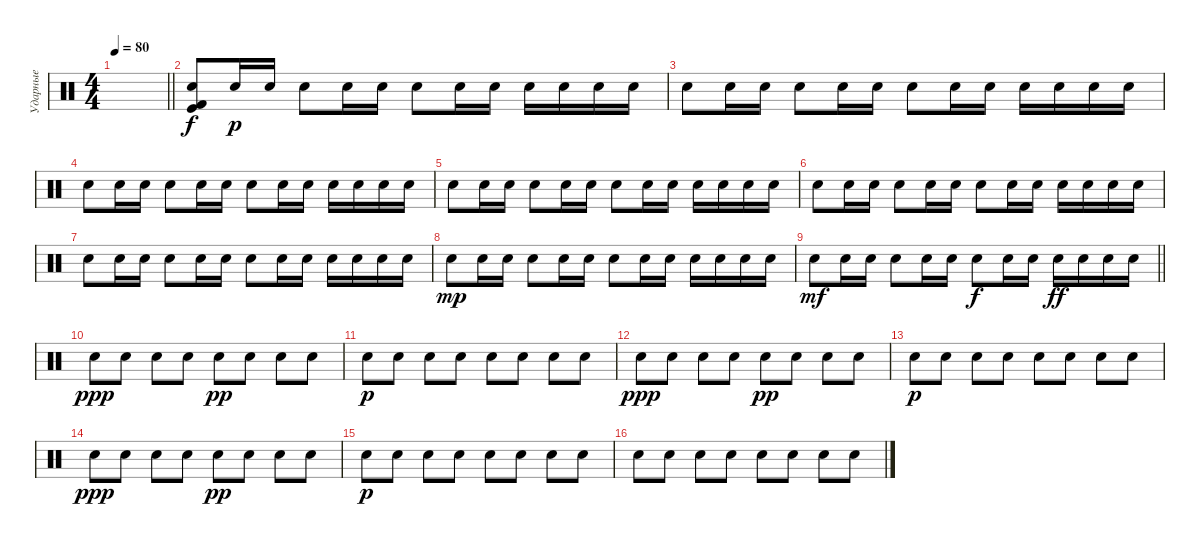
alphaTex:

\track ("Ударные" "Ударные") {instrument percussion}
\staff {score}
\articulation defaults
\ts (4 4)
\tempo 80
\clef neutral
\barLineRight lightlight
\ks c
|
("Snare (hit) 2" "Kick (hit) 2" "Kick (hit)").8 "Snare (hit) 2".16{dy p} "Snare (hit) 2".16 "Snare (hit) 2".8 "Snare (hit) 2".16 "Snare (hit) 2".16 "Snare (hit) 2".8 "Snare (hit) 2".16 "Snare (hit) 2".16 "Snare (hit) 2".16 "Snare (hit) 2".16 "Snare (hit) 2".16 "Snare (hit) 2".16 |
"Snare (hit) 2".8 "Snare (hit) 2".16 "Snare (hit) 2".16 "Snare (hit) 2".8 "Snare (hit) 2".16 "Snare (hit) 2".16 "Snare (hit) 2".8 "Snare (hit) 2".16 "Snare (hit) 2".16 "Snare (hit) 2".16 "Snare (hit) 2".16 "Snare (hit) 2".16 "Snare (hit) 2".16 |
"Snare (hit) 2".8 "Snare (hit) 2".16 "Snare (hit) 2".16 "Snare (hit) 2".8 "Snare (hit) 2".16 "Snare (hit) 2".16 "Snare (hit) 2".8 "Snare (hit) 2".16 "Snare (hit) 2".16 "Snare (hit) 2".16 "Snare (hit) 2".16 "Snare (hit) 2".16 "Snare (hit) 2".16 |
"Snare (hit) 2".8 "Snare (hit) 2".16 "Snare (hit) 2".16 "Snare (hit) 2".8 "Snare (hit) 2".16 "Snare (hit) 2".16 "Snare (hit) 2".8 "Snare (hit) 2".16 "Snare (hit) 2".16 "Snare (hit) 2".16 "Snare (hit) 2".16 "Snare (hit) 2".16 "Snare (hit) 2".16 |
"Snare (hit) 2".8 "Snare (hit) 2".16 "Snare (hit) 2".16 "Snare (hit) 2".8 "Snare (hit) 2".16 "Snare (hit) 2".16 "Snare (hit) 2".8 "Snare (hit) 2".16 "Snare (hit) 2".16 "Snare (hit) 2".16 "Snare (hit) 2".16 "Snare (hit) 2".16 "Snare (hit) 2".16 |
"Snare (hit) 2".8 "Snare (hit) 2".16 "Snare (hit) 2".16 "Snare (hit) 2".8 "Snare (hit) 2".16 "Snare (hit) 2".16 "Snare (hit) 2".8 "Snare (hit) 2".16 "Snare (hit) 2".16 "Snare (hit) 2".16 "Snare (hit) 2".16 "Snare (hit) 2".16 "Snare (hit) 2".16 |
"Snare (hit) 2".8{dy mp} "Snare (hit) 2".16 "Snare (hit) 2".16 "Snare (hit) 2".8 "Snare (hit) 2".16 "Snare (hit) 2".16 "Snare (hit) 2".8 "Snare (hit) 2".16 "Snare (hit) 2".16 "Snare (hit) 2".16 "Snare (hit) 2".16 "Snare (hit) 2".16 "Snare (hit) 2".16 |
\barLineRight lightlight "Snare (hit) 2".8{dy mf} "Snare (hit) 2".16 "Snare (hit) 2".16 "Snare (hit) 2".8 "Snare (hit) 2".16 "Snare (hit) 2".16 "Snare (hit) 2".8{dy f} "Snare (hit) 2".16 "Snare (hit) 2".16 "Snare (hit) 2".16{dy ff} "Snare (hit) 2".16 "Snare (hit) 2".16 "Snare (hit) 2".16
|
"Snare (hit) 2".8{dy ppp} "Snare (hit) 2".8 "Snare (hit) 2".8 "Snare (hit) 2".8 "Snare (hit) 2".8{dy pp} "Snare (hit) 2".8 "Snare (hit) 2".8 "Snare (hit) 2".8 |
"Snare (hit) 2".8{dy p} "Snare (hit) 2".8 "Snare (hit) 2".8 "Snare (hit) 2".8 "Snare (hit) 2".8 "Snare (hit) 2".8 "Snare (hit) 2".8 "Snare (hit) 2".8 |
"Snare (hit) 2".8{dy ppp} "Snare (hit) 2".8 "Snare (hit) 2".8 "Snare (hit) 2".8 "Snare (hit) 2".8{dy pp} "Snare (hit) 2".8 "Snare (hit) 2".8 "Snare (hit) 2".8 |
"Snare (hit) 2".8{dy p} "Snare (hit) 2".8 "Snare (hit) 2".8 "Snare (hit) 2".8 "Snare (hit) 2".8 "Snare (hit) 2".8 "Snare (hit) 2".8 "Snare (hit) 2".8 |
"Snare (hit) 2".8{dy ppp} "Snare (hit) 2".8 "Snare (hit) 2".8 "Snare (hit) 2".8 "Snare (hit) 2".8{dy pp} "Snare (hit) 2".8 "Snare (hit) 2".8 "Snare (hit) 2".8 |
"Snare (hit) 2".8{dy p} "Snare (hit) 2".8 "Snare (hit) 2".8 "Snare (hit) 2".8 "Snare (hit) 2".8 "Snare (hit) 2".8 "Snare (hit) 2".8 "Snare (hit) 2".8 |
"Snare (hit) 2".8 "Snare (hit) 2".8 "Snare (hit) 2".8 "Snare (hit) 2".8 "Snare (hit) 2".8 "Snare (hit) 2".8 "Snare (hit) 2".8 "Snare (hit) 2".8
